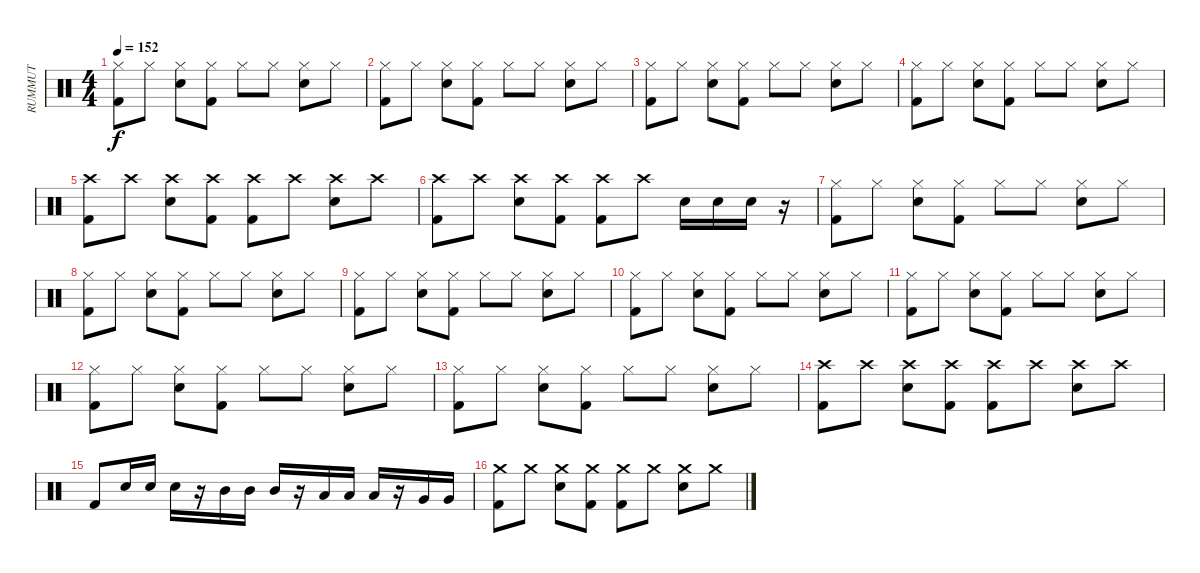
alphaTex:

\track ("RUMMUT" "RUMMUT") {instrument percussion}
\staff {score}
\articulation defaults
\ts (4 4)
\tempo 152
\clef neutral
\ks c
("Hi-Hat (closed)" "Kick (hit) 2").8{dy f} "Hi-Hat (closed)".8 ("Hi-Hat (closed)" "Electric Snare (hit)").8 ("Hi-Hat (closed)" "Kick (hit) 2").8 "Hi-Hat (closed)".8 "Hi-Hat (closed)".8 ("Hi-Hat (closed)" "Electric Snare (hit)").8 "Hi-Hat (closed)".8 |
("Hi-Hat (closed)" "Kick (hit) 2").8 "Hi-Hat (closed)".8 ("Hi-Hat (closed)" "Electric Snare (hit)").8 ("Hi-Hat (closed)" "Kick (hit) 2").8 "Hi-Hat (closed)".8 "Hi-Hat (closed)".8 ("Hi-Hat (closed)" "Electric Snare (hit)").8 "Hi-Hat (closed)".8 |
("Hi-Hat (closed)" "Kick (hit) 2").8 "Hi-Hat (closed)".8 ("Hi-Hat (closed)" "Electric Snare (hit)").8 ("Hi-Hat (closed)" "Kick (hit) 2").8 "Hi-Hat (closed)".8 "Hi-Hat (closed)".8 ("Hi-Hat (closed)" "Electric Snare (hit)").8 "Hi-Hat (closed)".8 |
("Hi-Hat (closed)" "Kick (hit) 2").8 "Hi-Hat (closed)".8 ("Hi-Hat (closed)" "Electric Snare (hit)").8 ("Hi-Hat (closed)" "Kick (hit) 2").8 "Hi-Hat (closed)".8 "Hi-Hat (closed)".8 ("Hi-Hat (closed)" "Electric Snare (hit)").8 "Hi-Hat (closed)".8 |
("Crash high (hit)" "Kick (hit) 2").8 "Crash high (hit)".8 ("Crash high (hit)" "Electric Snare (hit)").8 ("Crash high (hit)" "Kick (hit) 2").8 ("Crash high (hit)" "Kick (hit) 2").8 "Crash high (hit)".8 ("Crash high (hit)" "Electric Snare (hit)").8 "Crash high (hit)".8 |
("Crash high (hit)" "Kick (hit) 2").8 "Crash high (hit)".8 ("Crash high (hit)" "Electric Snare (hit)").8 ("Crash high (hit)" "Kick (hit) 2").8 ("Crash high (hit)" "Kick (hit) 2").8 "Crash high (hit)".8 "Electric Snare (hit)".16 "Electric Snare (hit)".16 "Electric Snare (hit)".16 r.16 |
("Hi-Hat (closed)" "Kick (hit) 2").8 "Hi-Hat (closed)".8 ("Hi-Hat (closed)" "Electric Snare (hit)").8 ("Hi-Hat (closed)" "Kick (hit) 2").8 "Hi-Hat (closed)".8 "Hi-Hat (closed)".8 ("Hi-Hat (closed)" "Electric Snare (hit)").8 "Hi-Hat (closed)".8 |
("Hi-Hat (closed)" "Kick (hit) 2").8 "Hi-Hat (closed)".8 ("Hi-Hat (closed)" "Electric Snare (hit)").8 ("Hi-Hat (closed)" "Kick (hit) 2").8 "Hi-Hat (closed)".8 "Hi-Hat (closed)".8 ("Hi-Hat (closed)" "Electric Snare (hit)").8 "Hi-Hat (closed)".8 |
("Hi-Hat (closed)" "Kick (hit) 2").8 "Hi-Hat (closed)".8 ("Hi-Hat (closed)" "Electric Snare (hit)").8 ("Hi-Hat (closed)" "Kick (hit) 2").8 "Hi-Hat (closed)".8 "Hi-Hat (closed)".8 ("Hi-Hat (closed)" "Electric Snare (hit)").8 "Hi-Hat (closed)".8 |
("Hi-Hat (closed)" "Kick (hit) 2").8 "Hi-Hat (closed)".8 ("Hi-Hat (closed)" "Electric Snare (hit)").8 ("Hi-Hat (closed)" "Kick (hit) 2").8 "Hi-Hat (closed)".8 "Hi-Hat (closed)".8 ("Hi-Hat (closed)" "Electric Snare (hit)").8 "Hi-Hat (closed)".8 |
("Hi-Hat (closed)" "Kick (hit) 2").8 "Hi-Hat (closed)".8 ("Hi-Hat (closed)" "Electric Snare (hit)").8 ("Hi-Hat (closed)" "Kick (hit) 2").8 "Hi-Hat (closed)".8 "Hi-Hat (closed)".8 ("Hi-Hat (closed)" "Electric Snare (hit)").8 "Hi-Hat (closed)".8 |
("Hi-Hat (closed)" "Kick (hit) 2").8 "Hi-Hat (closed)".8 ("Hi-Hat (closed)" "Electric Snare (hit)").8 ("Hi-Hat (closed)" "Kick (hit) 2").8 "Hi-Hat (closed)".8 "Hi-Hat (closed)".8 ("Hi-Hat (closed)" "Electric Snare (hit)").8 "Hi-Hat (closed)".8 |
("Hi-Hat (closed)" "Kick (hit) 2").8 "Hi-Hat (closed)".8 ("Hi-Hat (closed)" "Electric Snare (hit)").8 ("Hi-Hat (closed)" "Kick (hit) 2").8 "Hi-Hat (closed)".8 "Hi-Hat (closed)".8 ("Hi-Hat (closed)" "Electric Snare (hit)").8 "Hi-Hat (closed)".8 |
("Crash high (hit)" "Kick (hit) 2").8 "Crash high (hit)".8 ("Crash high (hit)" "Electric Snare (hit)").8 ("Crash high (hit)" "Kick (hit) 2").8 ("Crash high (hit)" "Kick (hit) 2").8 "Crash high (hit)".8 ("Crash high (hit)" "Electric Snare (hit)").8 "Crash high (hit)".8 |
"Kick (hit) 2".8 "Electric Snare (hit)".16 "Electric Snare (hit)".16 "Electric Snare (hit)".16 r.16 "Mid Tom (hit)".16 "Mid Tom (hit)".16 "Mid Tom (hit)".16 r.16 "Low Tom (hit)".16 "Low Tom (hit)".16 "Low Tom (hit)".16 r.16 "Very Low Tom (hit)".16 "Very Low Tom (hit)".16 |
("Crash medium (hit)" "Kick (hit) 2").8 "Crash medium (hit)".8 ("Crash medium (hit)" "Electric Snare (hit)").8 ("Crash medium (hit)" "Kick (hit) 2").8 ("Crash medium (hit)" "Kick (hit) 2").8 "Crash medium (hit)".8 ("Crash medium (hit)" "Electric Snare (hit)").8 "Crash medium (hit)".8
